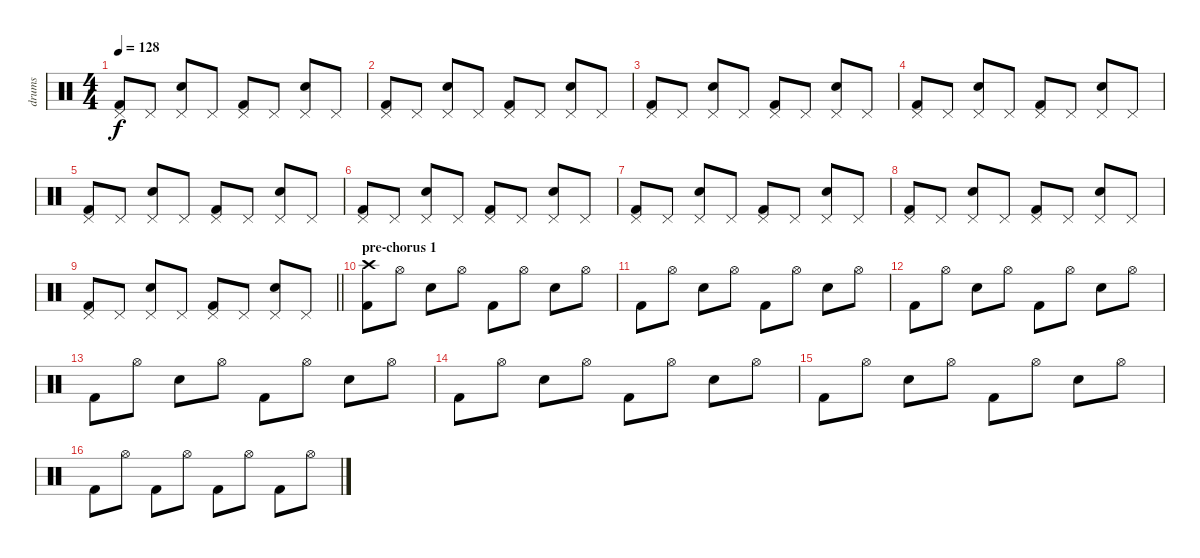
\track ("drums" "drums") {instrument percussion}
\staff {score}
\articulation defaults
\ts (4 4)
\tempo 128
\clef neutral
\ks c
("Kick (hit) 2" "Pedal Hi-Hat (hit)").8{dy f} "Pedal Hi-Hat (hit)".8 ("Electric Snare (hit)" "Pedal Hi-Hat (hit)").8 "Pedal Hi-Hat (hit)".8 ("Kick (hit) 2" "Pedal Hi-Hat (hit)").8 "Pedal Hi-Hat (hit)".8 ("Electric Snare (hit)" "Pedal Hi-Hat (hit)").8 "Pedal Hi-Hat (hit)".8 |
("Kick (hit) 2" "Pedal Hi-Hat (hit)").8 "Pedal Hi-Hat (hit)".8 ("Electric Snare (hit)" "Pedal Hi-Hat (hit)").8 "Pedal Hi-Hat (hit)".8 ("Kick (hit) 2" "Pedal Hi-Hat (hit)").8 "Pedal Hi-Hat (hit)".8 ("Electric Snare (hit)" "Pedal Hi-Hat (hit)").8 "Pedal Hi-Hat (hit)".8 |
("Kick (hit) 2" "Pedal Hi-Hat (hit)").8 "Pedal Hi-Hat (hit)".8 ("Electric Snare (hit)" "Pedal Hi-Hat (hit)").8 "Pedal Hi-Hat (hit)".8 ("Kick (hit) 2" "Pedal Hi-Hat (hit)").8 "Pedal Hi-Hat (hit)".8 ("Electric Snare (hit)" "Pedal Hi-Hat (hit)").8 "Pedal Hi-Hat (hit)".8 |
("Kick (hit) 2" "Pedal Hi-Hat (hit)").8 "Pedal Hi-Hat (hit)".8 ("Electric Snare (hit)" "Pedal Hi-Hat (hit)").8 "Pedal Hi-Hat (hit)".8 ("Kick (hit) 2" "Pedal Hi-Hat (hit)").8 "Pedal Hi-Hat (hit)".8 ("Electric Snare (hit)" "Pedal Hi-Hat (hit)").8 "Pedal Hi-Hat (hit)".8 |
("Kick (hit) 2" "Pedal Hi-Hat (hit)").8 "Pedal Hi-Hat (hit)".8 ("Electric Snare (hit)" "Pedal Hi-Hat (hit)").8 "Pedal Hi-Hat (hit)".8 ("Kick (hit) 2" "Pedal Hi-Hat (hit)").8 "Pedal Hi-Hat (hit)".8 ("Electric Snare (hit)" "Pedal Hi-Hat (hit)").8 "Pedal Hi-Hat (hit)".8 |
("Kick (hit) 2" "Pedal Hi-Hat (hit)").8 "Pedal Hi-Hat (hit)".8 ("Electric Snare (hit)" "Pedal Hi-Hat (hit)").8 "Pedal Hi-Hat (hit)".8 ("Kick (hit) 2" "Pedal Hi-Hat (hit)").8 "Pedal Hi-Hat (hit)".8 ("Electric Snare (hit)" "Pedal Hi-Hat (hit)").8 "Pedal Hi-Hat (hit)".8 |
("Kick (hit) 2" "Pedal Hi-Hat (hit)").8 "Pedal Hi-Hat (hit)".8 ("Electric Snare (hit)" "Pedal Hi-Hat (hit)").8 "Pedal Hi-Hat (hit)".8 ("Kick (hit) 2" "Pedal Hi-Hat (hit)").8 "Pedal Hi-Hat (hit)".8 ("Electric Snare (hit)" "Pedal Hi-Hat (hit)").8 "Pedal Hi-Hat (hit)".8 |
("Kick (hit) 2" "Pedal Hi-Hat (hit)").8 "Pedal Hi-Hat (hit)".8 ("Electric Snare (hit)" "Pedal Hi-Hat (hit)").8 "Pedal Hi-Hat (hit)".8 ("Kick (hit) 2" "Pedal Hi-Hat (hit)").8 "Pedal Hi-Hat (hit)".8 ("Electric Snare (hit)" "Pedal Hi-Hat (hit)").8 "Pedal Hi-Hat (hit)".8 |
\barLineRight lightlight
("Kick (hit) 2" "Pedal Hi-Hat (hit)").8 "Pedal Hi-Hat (hit)".8 ("Electric Snare (hit)" "Pedal Hi-Hat (hit)").8 "Pedal Hi-Hat (hit)".8 ("Kick (hit) 2" "Pedal Hi-Hat (hit)").8 "Pedal Hi-Hat (hit)".8 ("Electric Snare (hit)" "Pedal Hi-Hat (hit)").8 "Pedal Hi-Hat (hit)".8 |
\section ("" "pre-chorus 1")
("Kick (hit) 2" "Crash high (hit)").8 "Hi-Hat (open)".8 "Electric Snare (hit)".8 "Hi-Hat (open)".8 "Kick (hit) 2".8 "Hi-Hat (open)".8 "Electric Snare (hit)".8 "Hi-Hat (open)".8 |
"Kick (hit) 2".8 "Hi-Hat (open)".8 "Electric Snare (hit)".8 "Hi-Hat (open)".8 "Kick (hit) 2".8 "Hi-Hat (open)".8 "Electric Snare (hit)".8 "Hi-Hat (open)".8 |
"Kick (hit) 2".8 "Hi-Hat (open)".8 "Electric Snare (hit)".8 "Hi-Hat (open)".8 "Kick (hit) 2".8 "Hi-Hat (open)".8 "Electric Snare (hit)".8 "Hi-Hat (open)".8 |
"Kick (hit) 2".8 "Hi-Hat (open)".8 "Electric Snare (hit)".8 "Hi-Hat (open)".8 "Kick (hit) 2".8 "Hi-Hat (open)".8 "Electric Snare (hit)".8 "Hi-Hat (open)".8 |
"Kick (hit) 2".8 "Hi-Hat (open)".8 "Electric Snare (hit)".8 "Hi-Hat (open)".8 "Kick (hit) 2".8 "Hi-Hat (open)".8 "Electric Snare (hit)".8 "Hi-Hat (open)".8 |
"Kick (hit) 2".8 "Hi-Hat (open)".8 "Electric Snare (hit)".8 "Hi-Hat (open)".8 "Kick (hit) 2".8 "Hi-Hat (open)".8 "Electric Snare (hit)".8 "Hi-Hat (open)".8 |
"Kick (hit) 2".8 "Hi-Hat (open)".8 "Kick (hit) 2".8 "Hi-Hat (open)".8 "Kick (hit) 2".8 "Hi-Hat (open)".8 "Kick (hit) 2".8 "Hi-Hat (open)".8
